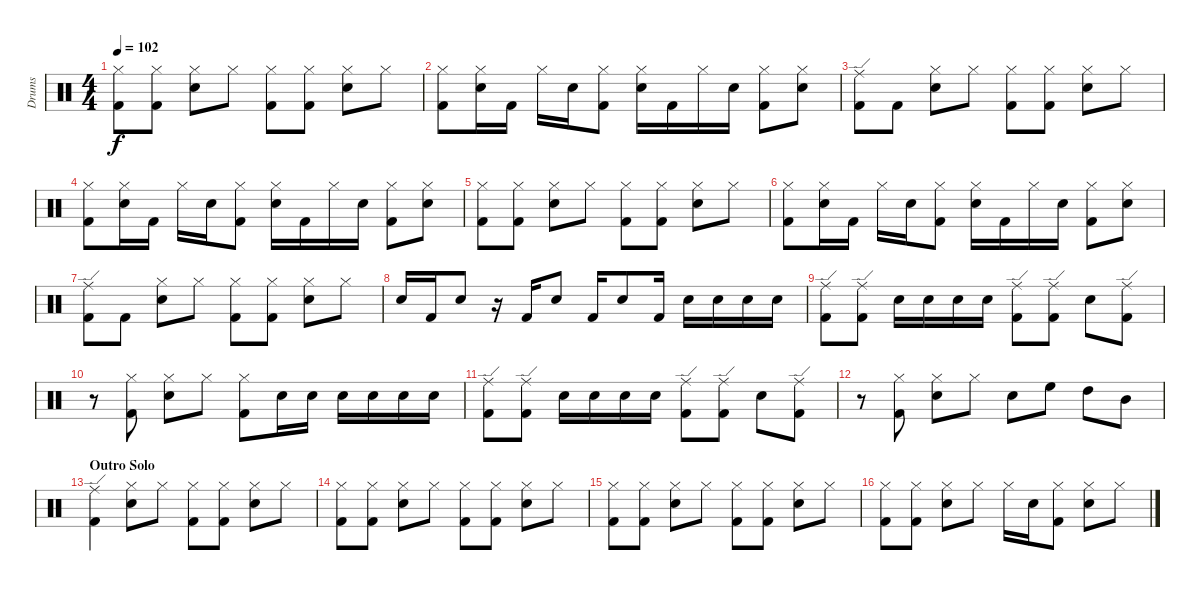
\defaultSystemsLayout 4
\bracketExtendMode groupsimilarinstruments
\otherSystemsTrackNameOrientation horizontal
\track ("Drumkit (Bonham)" "Drums") {instrument percussion}
\staff {score}
\articulation defaults
\ts (4 4)
\tempo 102
\clef neutral
\scale
0.333333
\ks c
("Hi-Hat (closed)" "Kick (hit) 2").8{dy f beam Down} ("Hi-Hat (closed)" "Kick (hit) 2").8{beam Down} ("Hi-Hat (closed)" "Snare (hit) 2").8{beam Down} "Hi-Hat (closed)".8{beam Down} ("Hi-Hat (closed)" "Kick (hit) 2").8{beam Down} ("Hi-Hat (closed)" "Kick (hit) 2").8{beam Down} ("Hi-Hat (closed)" "Snare (hit) 2").8{beam Down} "Hi-Hat (closed)".8{beam Down} |
\scale
0.333333 ("Hi-Hat (closed)" "Kick (hit) 2").8{beam Down} ("Hi-Hat (closed)" "Snare (hit) 2").16{beam Down} "Kick (hit) 2".16{beam Down} "Hi-Hat (closed)".16{beam Down} "Snare (hit) 2".16{beam Down} ("Hi-Hat (closed)" "Kick (hit) 2").8{beam Down} ("Hi-Hat (closed)" "Snare (hit) 2").16{beam Down} "Kick (hit) 2".16{beam Down} "Hi-Hat (closed)".16{beam Down} "Snare (hit) 2".16{beam Down} ("Hi-Hat (closed)" "Kick (hit) 2").8{beam Down} ("Hi-Hat (closed)" "Snare (hit) 2").8{beam Down} |
\scale
0.333333 ("Ride (edge)" "Kick (hit) 2").8{beam Down} "Kick (hit) 2".8{beam Down} ("Hi-Hat (closed)" "Snare (hit) 2").8{beam Down} "Hi-Hat (closed)".8{beam Down} ("Hi-Hat (closed)" "Kick (hit) 2").8{beam Down} ("Hi-Hat (closed)" "Kick (hit) 2").8{beam Down} ("Hi-Hat (closed)" "Snare (hit) 2").8{beam Down} "Hi-Hat (closed)".8{beam Down} |
\scale
0.333333 ("Hi-Hat (closed)" "Kick (hit) 2").8{beam Down} ("Hi-Hat (closed)" "Snare (hit) 2").16{beam Down} "Kick (hit) 2".16{beam Down} "Hi-Hat (closed)".16{beam Down} "Snare (hit) 2".16{beam Down} ("Hi-Hat (closed)" "Kick (hit) 2").8{beam Down} ("Hi-Hat (closed)" "Snare (hit) 2").16{beam Down} "Kick (hit) 2".16{beam Down} "Hi-Hat (closed)".16{beam Down} "Snare (hit) 2".16{beam Down} ("Hi-Hat (closed)" "Kick (hit) 2").8{beam Down} ("Hi-Hat (closed)" "Snare (hit) 2").8{beam Down} |
\scale
0.333333 ("Hi-Hat (closed)" "Kick (hit) 2").8{beam Down} ("Hi-Hat (closed)" "Kick (hit) 2").8{beam Down} ("Hi-Hat (closed)" "Snare (hit) 2").8{beam Down} "Hi-Hat (closed)".8{beam Down} ("Hi-Hat (closed)" "Kick (hit) 2").8{beam Down} ("Hi-Hat (closed)" "Kick (hit) 2").8{beam Down} ("Hi-Hat (closed)" "Snare (hit) 2").8{beam Down} "Hi-Hat (closed)".8{beam Down} |
\scale
0.333333 ("Hi-Hat (closed)" "Kick (hit) 2").8{beam Down} ("Hi-Hat (closed)" "Snare (hit) 2").16{beam Down} "Kick (hit) 2".16{beam Down} "Hi-Hat (closed)".16{beam Down} "Snare (hit) 2".16{beam Down} ("Hi-Hat (closed)" "Kick (hit) 2").8{beam Down} ("Hi-Hat (closed)" "Snare (hit) 2").16{beam Down} "Kick (hit) 2".16{beam Down} "Hi-Hat (closed)".16{beam Down} "Snare (hit) 2".16{beam Down} ("Hi-Hat (closed)" "Kick (hit) 2").8{beam Down} ("Hi-Hat (closed)" "Snare (hit) 2").8{beam Down} |
\scale
0.333333 ("Ride (edge)" "Kick (hit) 2").8{beam Down} "Kick (hit) 2".8{beam Down} ("Hi-Hat (closed)" "Snare (hit) 2").8{beam Down} "Hi-Hat (closed)".8{beam Down} ("Hi-Hat (closed)" "Kick (hit) 2").8{beam Down} ("Hi-Hat (closed)" "Kick (hit) 2").8{beam Down} ("Hi-Hat (closed)" "Snare (hit) 2").8{beam Down} "Hi-Hat (closed)".8{beam Down} |
\scale
0.333333 "Snare (hit) 2".16{beam Up} "Kick (hit) 2".16{beam Up} "Snare (hit) 2".8{beam Up} r.16{beam Up} "Kick (hit) 2".16{beam Up} "Snare (hit) 2".8{beam Up} "Kick (hit) 2".16{beam Up} "Snare (hit) 2".8{beam Up} "Kick (hit) 2".16{beam Up} "Snare (hit) 2".16{beam Down} "Snare (hit) 2".16{beam Down} "Snare (hit) 2".16{beam Down} "Snare (hit) 2".16{beam Down} |
\scale
0.333333 ("Ride (edge)" "Kick (hit) 2").8{beam Down} ("Ride (edge)" "Kick (hit) 2").8{beam Down} "Snare (hit) 2".16{beam Down} "Snare (hit) 2".16{beam Down} "Snare (hit) 2".16{beam Down} "Snare (hit) 2".16{beam Down} ("Ride (edge)" "Kick (hit) 2").8{beam Down} ("Ride (edge)" "Kick (hit) 2").8{beam Down} "Snare (hit) 2".8{beam Down} ("Ride (edge)" "Kick (hit) 2").8{beam Down} |
\scale
0.333333 r.8{beam Down} ("Hi-Hat (closed)" "Kick (hit) 2").8{beam Down} ("Hi-Hat (closed)" "Snare (hit) 2").8{beam Down} "Hi-Hat (closed)".8{beam Down} ("Hi-Hat (closed)" "Kick (hit) 2").8{beam Down} "Snare (hit) 2".16{beam Down} "Snare (hit) 2".16{beam Down} "Snare (hit) 2".16{beam Down} "Snare (hit) 2".16{beam Down} "Snare (hit) 2".16{beam Down} "Snare (hit) 2".16{beam Down} |
\scale
0.333333 ("Ride (edge)" "Kick (hit) 2").8{beam Down} ("Ride (edge)" "Kick (hit) 2").8{beam Down} "Snare (hit) 2".16{beam Down} "Snare (hit) 2".16{beam Down} "Snare (hit) 2".16{beam Down} "Snare (hit) 2".16{beam Down} ("Ride (edge)" "Kick (hit) 2").8{beam Down} ("Ride (edge)" "Kick (hit) 2").8{beam Down} "Snare (hit) 2".8{beam Down} ("Ride (edge)" "Kick (hit) 2").8{beam Down} |
\scale
0.333333 r.8{beam Down} ("Hi-Hat (closed)" "Kick (hit) 2").8{beam Down} ("Hi-Hat (closed)" "Snare (hit) 2").8{beam Down} "Hi-Hat (closed)".8{beam Down} "Snare (hit) 2".8{beam Down} "High Floor Tom (hit)".8{beam Down} "High Tom (hit)".8{beam Down} "Mid Tom (hit)".8{beam Down} |
\section ("" "Outro Solo")
\scale
0.333333 ("Ride (edge)" "Kick (hit) 2").4{beam Down} ("Hi-Hat (closed)" "Snare (hit) 2").8{beam Down} "Hi-Hat (closed)".8{beam Down} ("Hi-Hat (closed)" "Kick (hit) 2").8{beam Down} ("Hi-Hat (closed)" "Kick (hit) 2").8{beam Down} ("Hi-Hat (closed)" "Snare (hit) 2").8{beam Down} "Hi-Hat (closed)".8{beam Down} |
\scale
0.333333 ("Hi-Hat (closed)" "Kick (hit) 2").8{beam Down} ("Hi-Hat (closed)" "Kick (hit) 2").8{beam Down} ("Hi-Hat (closed)" "Snare (hit) 2").8{beam Down} "Hi-Hat (closed)".8{beam Down} ("Hi-Hat (closed)" "Kick (hit) 2").8{beam Down} ("Hi-Hat (closed)" "Kick (hit) 2").8{beam Down} ("Hi-Hat (closed)" "Snare (hit) 2").8{beam Down} "Hi-Hat (closed)".8{beam Down} |
\scale
0.333333 ("Hi-Hat (closed)" "Kick (hit) 2").8{beam Down} ("Hi-Hat (closed)" "Kick (hit) 2").8{beam Down} ("Hi-Hat (closed)" "Snare (hit) 2").8{beam Down} "Hi-Hat (closed)".8{beam Down} ("Hi-Hat (closed)" "Kick (hit) 2").8{beam Down} ("Hi-Hat (closed)" "Kick (hit) 2").8{beam Down} ("Hi-Hat (closed)" "Snare (hit) 2").8{beam Down} "Hi-Hat (closed)".8{beam Down} |
\scale
0.333333 ("Hi-Hat (closed)" "Kick (hit) 2").8{beam Down} ("Hi-Hat (closed)" "Kick (hit) 2").8{beam Down} ("Hi-Hat (closed)" "Snare (hit) 2").8{beam Down} "Hi-Hat (closed)".8{beam Down} "Hi-Hat (closed)".16{beam Down} "Snare (hit) 2".16{beam Down} ("Hi-Hat (closed)" "Kick (hit) 2").8{beam Down} ("Hi-Hat (closed)" "Snare (hit) 2").8{beam Down} "Hi-Hat (closed)".8{beam Down}
